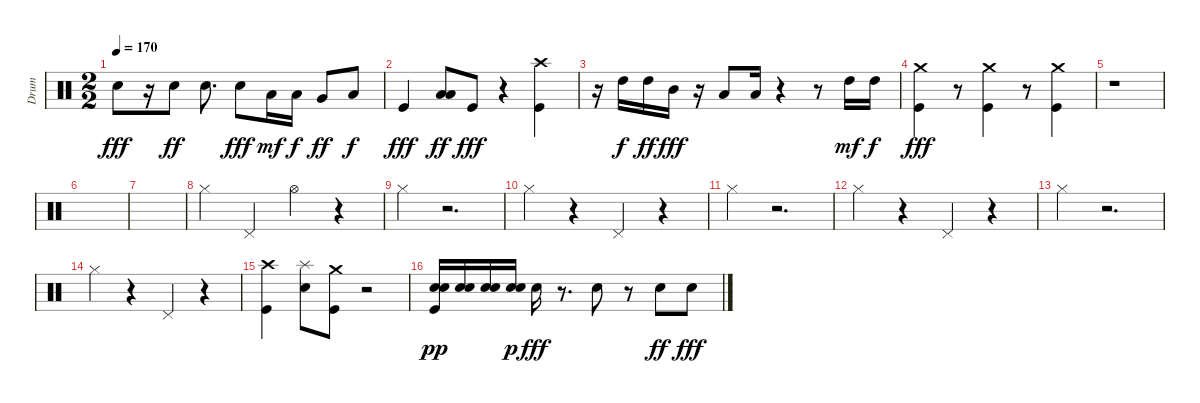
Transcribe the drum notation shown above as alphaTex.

\track ("Drum" "Drum") {instrument percussion}
\staff {score}
\articulation defaults
\ts (2 2)
\tempo 170
\clef neutral
\ks c "Electric Snare (hit)".8{dy fff}
r.16 "Electric Snare (hit)".8{dy ff} "Electric Snare (hit)".8{d} "Electric Snare (hit)".8{dy fff} "Low Tom (hit)".16{dy mf} "Low Tom (hit)".16{dy f} "Very Low Tom (hit)".8{dy ff} "Low Floor Tom (hit)".8{dy f} |
"Kick (hit)".4{dy fff} ("Low Floor Tom (hit)" "Low Tom (hit)").8{dy ff} "Kick (hit)".8{dy fff} r.4 ("Kick (hit)" "Crash high (hit)").4 |
r.16 "High Tom (hit)".16{dy f} "High Tom (hit)".16{dy ff} "Mid Tom (hit)".16{dy fff} r.16 "Low Tom (hit)".8 "Low Floor Tom (hit)".16 r.4 r.8 "High Tom (hit)".16{dy mf} "High Tom (hit)".16{dy f} |
("Crash medium (hit)" "Kick (hit)").4{dy fff} r.8 ("Kick (hit)" "Crash medium (hit)").4 r.8 ("Kick (hit)" "Crash medium (hit)").4 |
r.1 |
|
|
"Hi-Hat (closed)".4 "Pedal Hi-Hat (hit)".4 "Hi-Hat (open)".4 r.4 |
"Hi-Hat (closed)".4 r.2{d} |
"Hi-Hat (closed)".4{volume 15 balance 8} r.4 "Pedal Hi-Hat (hit)".4 r.4 |
"Hi-Hat (closed)".4 r.2{d} |
"Hi-Hat (closed)".4 r.4 "Pedal Hi-Hat (hit)".4 r.4 |
"Hi-Hat (closed)".4 r.2{d} |
"Hi-Hat (closed)".4 r.4 "Pedal Hi-Hat (hit)".4 r.4 |
("Crash high (hit)" "Kick (hit)").4 ("Splash (hit)" "Electric Snare (hit)").8 ("Crash medium (hit)" "Kick (hit)").8 r.2 |
("Kick (hit)" "Electric Snare (hit)" "Electric Snare (hit)").16{dy pp} ("Electric Snare (hit)" "Electric Snare (hit)").16 ("Electric Snare (hit)" "Electric Snare (hit)").16 ("Electric Snare (hit)" "Electric Snare (hit)").16{dy p} "Electric Snare (hit)".16{dy fff} r.8{d} "Electric Snare (hit)".8 r.8 "Electric Snare (hit)".8{dy ff} "Electric Snare (hit)".8{dy fff}
